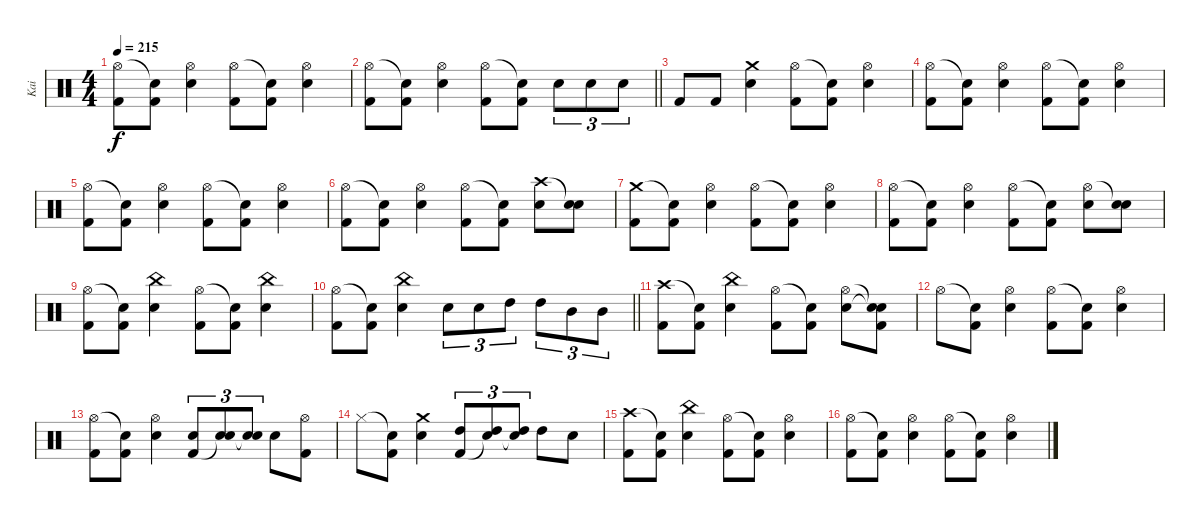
\track ("Kai" "Kai") {instrument percussion}
\staff {score}
\articulation defaults
\ts (4 4)
\tempo 215
\clef neutral
\ks c
("Hi-Hat (open)" "Kick (hit) 2").8{dy f} ("Snare (hit)"{t} "Kick (hit) 2").8 ("Hi-Hat (open)" "Snare (hit) 2").4 ("Hi-Hat (open)" "Kick (hit) 2").8 ("Snare (hit)"{t} "Kick (hit) 2").8 ("Hi-Hat (open)" "Snare (hit) 2").4 |
\barLineRight lightlight
("Hi-Hat (open)" "Kick (hit) 2").8 ("Snare (hit)"{t} "Kick (hit) 2").8 ("Hi-Hat (open)" "Snare (hit) 2").4 ("Hi-Hat (open)" "Kick (hit) 2").8 ("Snare (hit)"{t} "Kick (hit) 2").8 "Snare (hit) 2".8{tu (3 2)} "Snare (hit) 2".8{tu (3 2)} "Snare (hit) 2".8{tu (3 2)} |
"Kick (hit) 2".8 "Kick (hit) 2".8 ("Crash medium (hit)" "Snare (hit) 2").4 ("Hi-Hat (open)" "Kick (hit) 2").8 ("Snare (hit)"{t} "Kick (hit) 2").8 ("Hi-Hat (open)" "Snare (hit) 2").4 |
("Hi-Hat (open)" "Kick (hit) 2").8 ("Snare (hit)"{t} "Kick (hit) 2").8 ("Hi-Hat (open)" "Snare (hit) 2").4 ("Hi-Hat (open)" "Kick (hit) 2").8 ("Snare (hit)"{t} "Kick (hit) 2").8 ("Hi-Hat (open)" "Snare (hit) 2").4 |
("Hi-Hat (open)" "Kick (hit) 2").8 ("Snare (hit)"{t} "Kick (hit) 2").8 ("Hi-Hat (open)" "Snare (hit) 2").4 ("Hi-Hat (open)" "Kick (hit) 2").8 ("Snare (hit)"{t} "Kick (hit) 2").8 ("Hi-Hat (open)" "Snare (hit) 2").4 |
("Hi-Hat (open)" "Kick (hit) 2").8 ("Snare (hit)"{t} "Kick (hit) 2").8 ("Hi-Hat (open)" "Snare (hit) 2").4 ("Hi-Hat (open)" "Kick (hit) 2").8 ("Snare (hit)"{t} "Kick (hit) 2").8 ("Crash high (hit)" "Snare (hit) 2").8 ("Snare (hit)"{t} "Snare (hit) 2").8 |
("Crash medium (hit)" "Kick (hit) 2").8 ("Snare (hit)"{t} "Kick (hit) 2").8 ("Hi-Hat (open)" "Snare (hit) 2").4 ("Hi-Hat (open)" "Kick (hit) 2").8 ("Snare (hit)"{t} "Kick (hit) 2").8 ("Hi-Hat (open)" "Snare (hit) 2").4 |
("Hi-Hat (open)" "Kick (hit) 2").8 ("Snare (hit)"{t} "Kick (hit) 2").8 ("Hi-Hat (open)" "Snare (hit) 2").4 ("Hi-Hat (open)" "Kick (hit) 2").8 ("Snare (hit)"{t} "Kick (hit) 2").8 ("Hi-Hat (open)" "Snare (hit) 2").8 ("Snare (hit)"{t} "Snare (hit) 2").8 |
("Hi-Hat (open)" "Kick (hit) 2").8 ("Snare (hit)"{t} "Kick (hit) 2").8 ("China (hit)" "Snare (hit) 2").4 ("Hi-Hat (open)" "Kick (hit) 2").8 ("Snare (hit)"{t} "Kick (hit) 2").8 ("China (hit)" "Snare (hit) 2").4 |
\barLineRight lightlight
("Hi-Hat (open)" "Kick (hit) 2").8 ("Snare (hit)"{t} "Kick (hit) 2").8 ("China (hit)" "Snare (hit) 2").4 "Snare (hit) 2".8{tu (3 2)} "Snare (hit) 2".8{tu (3 2)} "High Tom (hit)".8{tu (3 2)} "High Tom (hit)".8{tu (3 2)} "Mid Tom (hit)".8{tu (3 2)} "Mid Tom (hit)".8{tu (3 2)} |
("Crash high (hit)" "Kick (hit) 2").8 ("Snare (hit)"{t} "Kick (hit) 2").8 ("China (hit)" "Snare (hit) 2").4 ("Hi-Hat (open)" "Kick (hit) 2").8 ("Snare (hit)"{t} "Kick (hit) 2").8 ("Hi-Hat (open)" "Snare (hit) 2").8 ("Snare (hit)"{t} "Snare (hit)"{t} "Kick (hit) 2").8 |
"Hi-Hat (open)".8 ("Snare (hit)"{t} "Kick (hit) 2").8 ("Hi-Hat (open)" "Snare (hit) 2").4 ("Hi-Hat (open)" "Kick (hit) 2").8 ("Snare (hit)"{t} "Kick (hit) 2").8 ("Hi-Hat (open)" "Snare (hit) 2").4 |
("Hi-Hat (open)" "Kick (hit) 2").8 ("Snare (hit)"{t} "Kick (hit) 2").8 ("Hi-Hat (open)" "Snare (hit) 2").4 ("Snare (hit) 2" "Kick (hit) 2").8{tu (3 2)} ("Snare (hit) 2" "Snare (hit)"{t}).8{tu (3 2)} ("Snare (hit) 2" "Snare (hit)"{t}).8{tu (3 2)} "Snare (hit) 2".8 ("Hi-Hat (open)" "Kick (hit) 2").8 |
"Hi-Hat (closed)".8 ("Snare (hit)"{t} "Kick (hit) 2").8 ("Crash medium (hit)" "Snare (hit) 2").4 ("High Tom (hit)" "Kick (hit) 2").8{tu (3 2)} ("High Tom (hit)" "Snare (hit)"{t}).8{tu (3 2)} ("High Tom (hit)" "Snare (hit)"{t}).8{tu (3 2)} "High Tom (hit)".8 "Snare (hit) 2".8 |
("Crash high (hit)" "Kick (hit) 2").8 ("Snare (hit)"{t} "Kick (hit) 2").8 ("China (hit)" "Snare (hit) 2").4 ("Hi-Hat (open)" "Kick (hit) 2").8 ("Snare (hit)"{t} "Kick (hit) 2").8 ("Hi-Hat (open)" "Snare (hit) 2").4 |
("Hi-Hat (open)" "Kick (hit) 2").8 ("Snare (hit)"{t} "Kick (hit) 2").8 ("Hi-Hat (open)" "Snare (hit) 2").4 ("Hi-Hat (open)" "Kick (hit) 2").8 ("Snare (hit)"{t} "Kick (hit) 2").8 ("Hi-Hat (open)" "Snare (hit) 2").4
